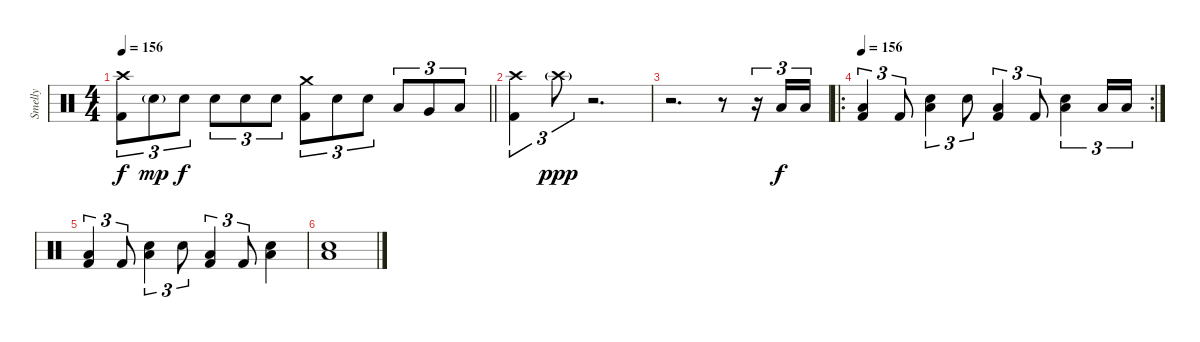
\track ("Smelly" "Smelly") {instrument percussion}
\staff {score}
\articulation defaults
\ts (4 4)
\tempo 156
\clef neutral
\barLineRight lightlight
\ks c
("Crash high (hit)" "Kick (hit) 2").8{tu (3 2) dy f} "Electric Snare (hit)"{g}.8{tu (3 2) dy mp} "Electric Snare (hit)".8{tu (3 2) dy f} "Electric Snare (hit)".8{tu (3 2)} "Electric Snare (hit)".8{tu (3 2)} "Electric Snare (hit)".8{tu (3 2)} ("Crash medium (hit)" "Kick (hit) 2").8{tu (3 2)} "Electric Snare (hit)".8{tu (3 2)} "Electric Snare (hit)".8{tu (3 2)} "Low Tom (hit)".8{tu (3 2)} "Very Low Tom (hit)".8{tu (3 2)} "Low Floor Tom (hit)".8{tu (3 2)} |
\section ("" "")
("Crash high (hit)" "Kick (hit) 2").4{tu (3 2)} "Crash high (hit)"{g}.8{tu (3 2) dy ppp} r.2{d} |
r.2{d} r.8 r.16{tu (3 2)} "Low Floor Tom (hit)".16{tu (3 2) dy f} "Low Floor Tom (hit)".16{tu (3 2)} |
\ro
\rc 2
\tempo 156
("Low Floor Tom (hit)" "Kick (hit) 2").4{tu (3 2)} "Kick (hit) 2".8{tu (3 2)} ("Electric Snare (hit)" "Low Floor Tom (hit)").4{tu (3 2)} "Electric Snare (hit)".8{tu (3 2)} ("Low Floor Tom (hit)" "Kick (hit) 2").4{tu (3 2)} "Kick (hit) 2".8{tu (3 2)} ("Electric Snare (hit)" "Low Floor Tom (hit)").4{tu (3 2)} "Low Floor Tom (hit)".16{tu (3 2)} "Low Floor Tom (hit)".16{tu (3 2)} |
("Low Floor Tom (hit)" "Kick (hit) 2").4{tu (3 2)} "Kick (hit) 2".8{tu (3 2)} ("Electric Snare (hit)" "Low Floor Tom (hit)").4{tu (3 2)} "Electric Snare (hit)".8{tu (3 2)} ("Low Floor Tom (hit)" "Kick (hit) 2").4{tu (3 2)} "Kick (hit) 2".8{tu (3 2)} ("Electric Snare (hit)" "Low Floor Tom (hit)").4 |
("Electric Snare (hit)" "Low Floor Tom (hit)").1
